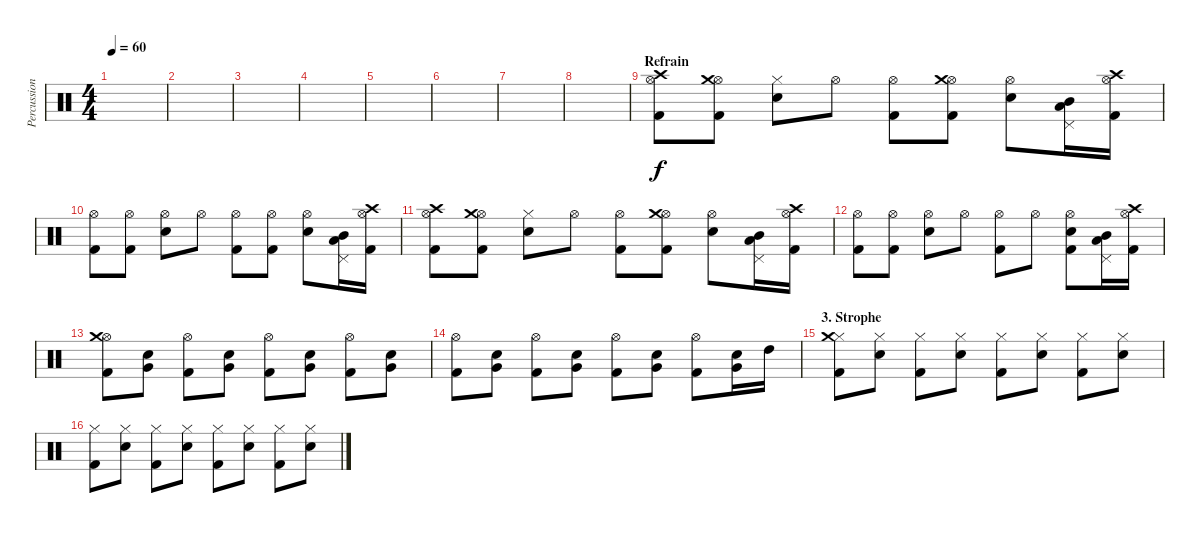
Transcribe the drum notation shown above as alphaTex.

\track ("Percussion" "Percussion") {instrument percussion}
\staff {score}
\articulation defaults
\ts (4 4)
\tempo 60
\clef neutral
\ks c
|
|
|
|
|
|
|
|
\section ("" "Refrain")
("Hi-Hat (open)" "Crash high (hit)" "Kick (hit) 2").8 ("Hi-Hat (open)" "Crash medium (hit)" "Kick (hit) 2").8 ("Hi-Hat (closed)" "Electric Snare (hit)").8 "Hi-Hat (open)".8 ("Hi-Hat (open)" "Kick (hit) 2").8 ("Hi-Hat (open)" "Crash medium (hit)" "Kick (hit) 2").8 ("Hi-Hat (open)" "Electric Snare (hit)").8 ("Pedal Hi-Hat (hit)" "Mid Tom (hit)" "Low Tom (hit)").16 ("Hi-Hat (open)" "Crash high (hit)" "Kick (hit) 2").16 |
("Hi-Hat (open)" "Kick (hit) 2").8 ("Hi-Hat (open)" "Kick (hit) 2").8 ("Hi-Hat (open)" "Electric Snare (hit)").8 "Hi-Hat (open)".8 ("Hi-Hat (open)" "Kick (hit) 2").8 ("Hi-Hat (open)" "Kick (hit) 2").8 ("Hi-Hat (open)" "Electric Snare (hit)").8 ("Pedal Hi-Hat (hit)" "Mid Tom (hit)" "Low Tom (hit)").16 ("Hi-Hat (open)" "Crash high (hit)" "Kick (hit) 2").16 |
("Hi-Hat (open)" "Crash high (hit)" "Kick (hit) 2").8 ("Hi-Hat (open)" "Crash medium (hit)" "Kick (hit) 2").8 ("Hi-Hat (closed)" "Electric Snare (hit)").8 "Hi-Hat (open)".8 ("Hi-Hat (open)" "Kick (hit) 2").8 ("Hi-Hat (open)" "Crash medium (hit)" "Kick (hit) 2").8 ("Hi-Hat (open)" "Electric Snare (hit)").8 ("Pedal Hi-Hat (hit)" "Mid Tom (hit)" "Low Tom (hit)").16 ("Hi-Hat (open)" "Crash high (hit)" "Kick (hit) 2").16 |
("Hi-Hat (open)" "Kick (hit) 2").8 ("Hi-Hat (open)" "Kick (hit) 2").8 ("Hi-Hat (open)" "Electric Snare (hit)").8 "Hi-Hat (open)".8 ("Hi-Hat (open)" "Kick (hit) 2").8 "Hi-Hat (open)".8 ("Hi-Hat (open)" "Electric Snare (hit)" "Kick (hit) 2").8 ("Pedal Hi-Hat (hit)" "Mid Tom (hit)" "Low Tom (hit)").16 ("Hi-Hat (open)" "Crash high (hit)" "Kick (hit) 2").16 |
("Hi-Hat (open)" "Crash medium (hit)" "Kick (hit) 2").8 ("Very Low Tom (hit)" "Electric Snare (hit)").8 ("Hi-Hat (open)" "Kick (hit) 2").8 ("Very Low Tom (hit)" "Electric Snare (hit)").8 ("Hi-Hat (open)" "Kick (hit) 2").8 ("Very Low Tom (hit)" "Electric Snare (hit)").8 ("Hi-Hat (open)" "Kick (hit) 2").8 ("Very Low Tom (hit)" "Electric Snare (hit)").8 |
("Hi-Hat (open)" "Kick (hit) 2").8 ("Very Low Tom (hit)" "Electric Snare (hit)").8 ("Hi-Hat (open)" "Kick (hit) 2").8 ("Very Low Tom (hit)" "Electric Snare (hit)").8 ("Hi-Hat (open)" "Kick (hit) 2").8 ("Very Low Tom (hit)" "Electric Snare (hit)").8 ("Hi-Hat (open)" "Kick (hit) 2").8 ("Very Low Tom (hit)" "Electric Snare (hit)").16 "High Tom (hit)".16 |
\section ("" "3. Strophe")
("Hi-Hat (closed)" "Crash medium (hit)" "Kick (hit) 2").8 ("Hi-Hat (closed)" "Electric Snare (hit)").8 ("Hi-Hat (closed)" "Kick (hit) 2").8 ("Hi-Hat (closed)" "Electric Snare (hit)").8 ("Hi-Hat (closed)" "Kick (hit) 2").8 ("Hi-Hat (closed)" "Electric Snare (hit)").8 ("Hi-Hat (closed)" "Kick (hit) 2").8 ("Hi-Hat (closed)" "Electric Snare (hit)").8 |
("Hi-Hat (closed)" "Kick (hit) 2").8 ("Hi-Hat (closed)" "Electric Snare (hit)").8 ("Hi-Hat (closed)" "Kick (hit) 2").8 ("Hi-Hat (closed)" "Electric Snare (hit)").8 ("Hi-Hat (closed)" "Kick (hit) 2").8 ("Hi-Hat (closed)" "Electric Snare (hit)").8 ("Hi-Hat (closed)" "Kick (hit) 2").8 ("Hi-Hat (closed)" "Electric Snare (hit)").8
